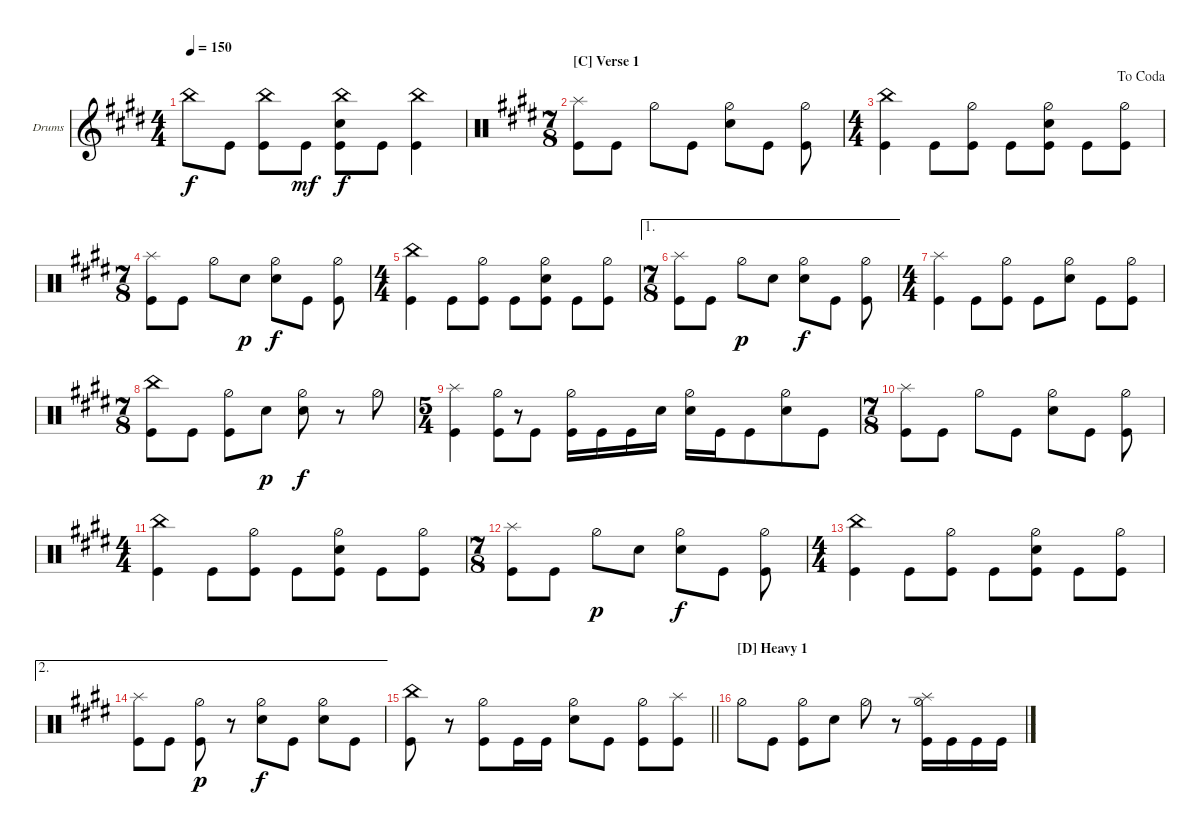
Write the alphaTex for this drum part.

\bracketExtendMode groupsimilarinstruments
\firstSystemTrackNameOrientation horizontal
\otherSystemsTrackNameOrientation horizontal
\track ("Drums" "Drums") {instrument percussion}
\staff {score}
\articulation defaults
\ts (4 4)
\tempo 150
\clef g2
\scale
0.220077
\ks e "China (hit)".8{dy f} "Kick (hit)".8
("China (hit)" "Kick (hit)").8 "Kick (hit)".8{dy mf} ("China (hit)" "Snare (hit) 2" "Kick (hit)").8{dy f} "Kick (hit)".8 ("China (hit)" "Kick (hit)").4 |
\ts (7 8)
\beaming (8 2 2 2 2)
\section ("C" "Verse 1")
\clef neutral
\scale
0.559846 ("Splash (hit)" "Kick (hit)").8 "Kick (hit)".8 "Hi-Hat (half)".8 "Kick (hit)".8 ("Hi-Hat (half)" "Snare (hit) 2").8 "Kick (hit)".8 ("Kick (hit)" "Hi-Hat (half)").8 |
\ts (4 4)
\beaming (8 2 2 2 2)
\jump dacoda
\scale
0.333333 ("China (hit)" "Kick (hit)").4 "Kick (hit)".8 ("Kick (hit)" "Hi-Hat (half)").8 "Kick (hit)".8 ("Snare (hit) 2" "Hi-Hat (half)" "Kick (hit)").8 "Kick (hit)".8 ("Kick (hit)" "Hi-Hat (half)").8 |
\ts (7 8)
\beaming (8 2 2 2 2)
\scale
0.333333 ("Kick (hit)" "Splash (hit)").8 "Kick (hit)".8 "Hi-Hat (half)".8 "Snare (hit) 2".8{dy p} ("Snare (hit) 2" "Hi-Hat (half)").8{dy f} "Kick (hit)".8 ("Kick (hit)" "Hi-Hat (half)").8 |
\ts (4 4)
\beaming (8 2 2 2 2)
\scale
0.333333 ("Kick (hit)" "China (hit)").4 "Kick (hit)".8 ("Kick (hit)" "Hi-Hat (half)").8 "Kick (hit)".8 ("Kick (hit)" "Snare (hit) 2" "Hi-Hat (half)").8 "Kick (hit)".8 ("Kick (hit)" "Hi-Hat (half)").8 |
\ae 1
\ts (7 8)
\beaming (8 2 2 2 2)
\scale
0.333333 ("Kick (hit)" "Splash (hit)").8 "Kick (hit)".8 "Hi-Hat (half)".8{dy p} "Snare (hit) 2".8 ("Snare (hit) 2" "Hi-Hat (half)").8{dy f} "Kick (hit)".8 ("Kick (hit)" "Hi-Hat (half)").8 |
\ts (4 4)
\beaming (8 2 2 2 2)
\scale
0.333333 ("Kick (hit)" "Splash (hit)").4 "Kick (hit)".8 ("Kick (hit)" "Hi-Hat (half)").8 "Kick (hit)".8 ("Snare (hit) 2" "Hi-Hat (half)").8 "Kick (hit)".8 ("Kick (hit)" "Hi-Hat (half)").8 |
\ts (7 8)
\beaming (8 2 2 2 2)
\scale
0.333333 ("Kick (hit)" "China (hit)").8 "Kick (hit)".8 ("Hi-Hat (half)" "Kick (hit)").8 "Snare (hit) 2".8{dy p} ("Snare (hit) 2" "Hi-Hat (half)").8{dy f} r.8 "Hi-Hat (half)".8 |
\ts (5 4)
\beaming (8 2 2 2 4)
\scale
0.422492 ("Kick (hit)" "Splash (hit)").4 ("Kick (hit)" "Hi-Hat (half)").8 r.8{gr} "Kick (hit)".8 ("Kick (hit)" "Hi-Hat (half)").16 "Kick (hit)".16 "Kick (hit)".16 "Snare (hit) 2".16 ("Snare (hit) 2" "Hi-Hat (half)").16 "Kick (hit)".16 "Kick (hit)".8 ("Snare (hit) 2" "Hi-Hat (half)").8 "Kick (hit)".8 |
\ts (7 8)
("Splash (hit)" "Kick (hit)").8 "Kick (hit)".8 "Hi-Hat (half)".8 "Kick (hit)".8 ("Hi-Hat (half)" "Snare (hit) 2").8 "Kick (hit)".8 ("Kick (hit)" "Hi-Hat (half)").8 |
\ts (4 4)
\beaming (8 2 2 2 2)
("China (hit)" "Kick (hit)").4 "Kick (hit)".8 ("Kick (hit)" "Hi-Hat (half)").8 "Kick (hit)".8 ("Snare (hit) 2" "Hi-Hat (half)" "Kick (hit)").8 "Kick (hit)".8 ("Kick (hit)" "Hi-Hat (half)").8 |
\ts (7 8)
("Kick (hit)" "Splash (hit)").8 "Kick (hit)".8 "Hi-Hat (half)".8{dy p} "Snare (hit) 2".8 ("Snare (hit) 2" "Hi-Hat (half)").8{dy f} "Kick (hit)".8 ("Kick (hit)" "Hi-Hat (half)").8 |
\ts (4 4)
("Kick (hit)" "China (hit)").4 "Kick (hit)".8 ("Kick (hit)" "Hi-Hat (half)").8 "Kick (hit)".8 ("Kick (hit)" "Snare (hit) 2" "Hi-Hat (half)").8 "Kick (hit)".8 ("Kick (hit)" "Hi-Hat (half)").8 |
\ae 2
\scale
0.404255 ("Kick (hit)" "Splash (hit)").8 "Kick (hit)".8 ("Hi-Hat (half)" "Kick (hit)").8{dy p} r.8 ("Hi-Hat (half)" "Snare (hit) 2").8{dy f} "Kick (hit)".8 ("Hi-Hat (half)" "Snare (hit) 2").8 "Kick (hit)".8 |
\scale
0.173252
\barLineRight lightlight
("Kick (hit)" "China (hit)").8 r.8 ("Kick (hit)" "Hi-Hat (half)").8 "Kick (hit)".16 "Kick (hit)".16 ("Snare (hit) 2" "Hi-Hat (half)").8 "Kick (hit)".8 ("Kick (hit)" "Hi-Hat (half)").8 ("Kick (hit)" "Splash (hit)").8 |
\section ("D" "Heavy 1")
\scale
0.333333 "Hi-Hat (half)".8 "Kick (hit)".8 ("Kick (hit)" "Hi-Hat (half)").8 "Snare (hit) 2".8 "Hi-Hat (half)".8 r.8 ("Kick (hit)" "Hi-Hat (half)" "Splash (hit)").16 "Kick (hit)".16 "Kick (hit)".16 "Kick (hit)".16
